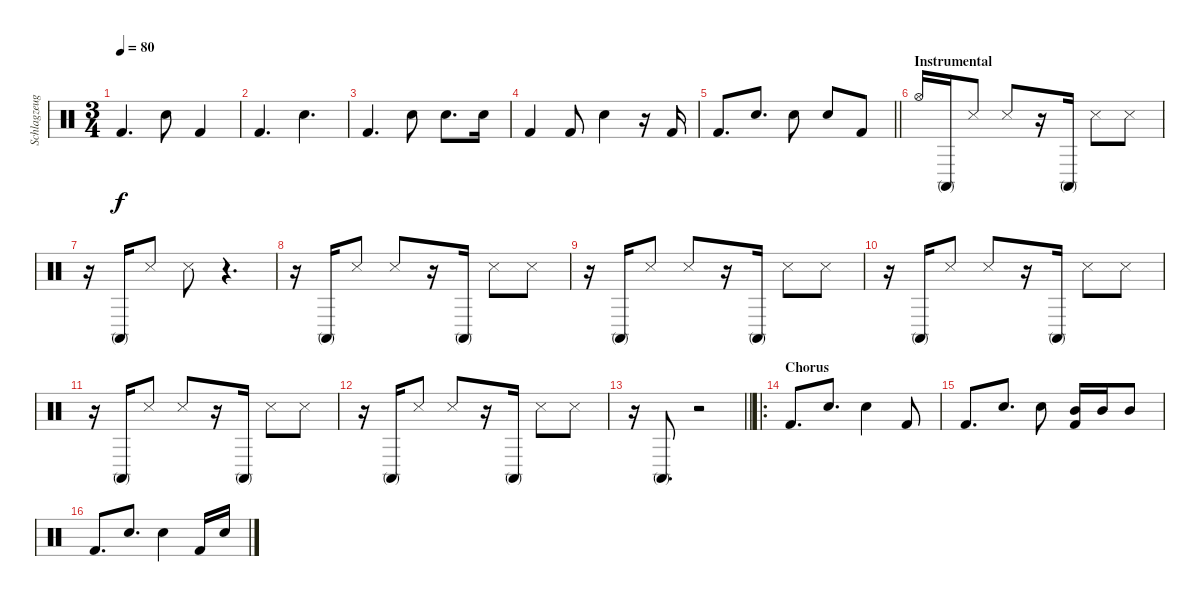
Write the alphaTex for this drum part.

\track ("Schlagzeug" "Schlagzeug") {instrument percussion}
\staff {score}
\articulation defaults
\ts (3 4)
\tempo 80
\clef neutral
\ks c "Kick (hit) 2".4{d dy f} "Snare (hit) 2".8 "Kick (hit) 2".4
|
"Kick (hit) 2".4{d} "Snare (hit) 2".4{d} |
"Kick (hit) 2".4{d} "Snare (hit) 2".8 "Snare (hit) 2".8{d} "Snare (hit) 2".16 |
"Kick (hit) 2".4 "Kick (hit) 2".8 "Snare (hit) 2".4 r.16 "Kick (hit) 2".16 |
\barLineRight lightlight "Kick (hit) 2".8{d} "Snare (hit) 2".8{d} "Snare (hit) 2".8 "Snare (hit) 2".8 "Kick (hit) 2".8
|
\section ("" "Instrumental")
"Hi-Hat (open)".16 "Conga high (mute)".16 "Metronome (hit)".8 "Metronome (hit)".8 r.16 "Conga high (mute)".16 "Metronome (hit)".8 "Metronome (hit)".8 |
r.16 "Conga high (mute)".16 "Metronome (hit)".8 "Metronome (hit)".8 r.4{d} |
r.16 "Conga high (mute)".16 "Metronome (hit)".8 "Metronome (hit)".8 r.16 "Conga high (mute)".16 "Metronome (hit)".8 "Metronome (hit)".8 |
r.16 "Conga high (mute)".16 "Metronome (hit)".8 "Metronome (hit)".8 r.16 "Conga high (mute)".16 "Metronome (hit)".8 "Metronome (hit)".8 |
r.16 "Conga high (mute)".16 "Metronome (hit)".8 "Metronome (hit)".8 r.16 "Conga high (mute)".16 "Metronome (hit)".8 "Metronome (hit)".8 |
r.16 "Conga high (mute)".16 "Metronome (hit)".8 "Metronome (hit)".8 r.16 "Conga high (mute)".16 "Metronome (hit)".8 "Metronome (hit)".8 |
r.16 "Conga high (mute)".16 "Metronome (hit)".8 "Metronome (hit)".8 r.16 "Conga high (mute)".16 "Metronome (hit)".8 "Metronome (hit)".8 |
\barLineRight lightlight
r.16 "Conga high (mute)".8{d} r.2 |
\ro
\section ("" "Chorus")
"Kick (hit) 2".8{d} "Snare (hit) 2".8{d} "Snare (hit) 2".4 "Kick (hit) 2".8 |
"Kick (hit) 2".8{d} "Snare (hit) 2".8{d} "Snare (hit) 2".8 ("Mid Tom (hit)" "Kick (hit) 2").16 "Mid Tom (hit)".16 "Mid Tom (hit)".8 |
"Kick (hit) 2".8{d} "Snare (hit) 2".8{d} "Snare (hit) 2".4 "Kick (hit) 2".16 "Snare (hit) 2".16
